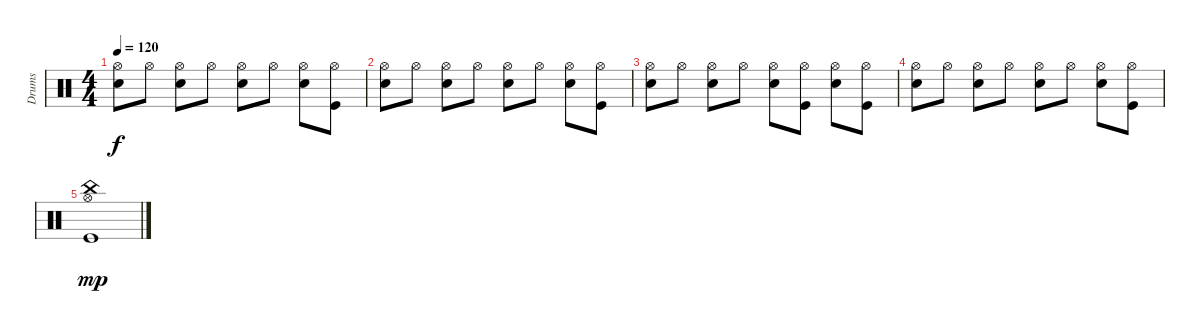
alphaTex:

\track ("Drums" "Drums") {instrument percussion}
\staff {score}
\articulation defaults
\ts (4 4)
\tempo 120
\clef neutral
\ks c
("Snare (hit) 2" "Hi-Hat (open)").8{dy f} "Hi-Hat (open)".8 ("Snare (hit) 2" "Hi-Hat (open)").8 "Hi-Hat (open)".8 ("Snare (hit) 2" "Hi-Hat (open)").8 "Hi-Hat (open)".8 ("Snare (hit) 2" "Hi-Hat (open)").8 ("Kick (hit)" "Hi-Hat (open)").8 |
("Snare (hit) 2" "Hi-Hat (open)").8 "Hi-Hat (open)".8 ("Snare (hit) 2" "Hi-Hat (open)").8 "Hi-Hat (open)".8 ("Snare (hit) 2" "Hi-Hat (open)").8 "Hi-Hat (open)".8 ("Snare (hit) 2" "Hi-Hat (open)").8 ("Kick (hit)" "Hi-Hat (open)").8 |
("Snare (hit) 2" "Hi-Hat (open)").8 "Hi-Hat (open)".8 ("Snare (hit) 2" "Hi-Hat (open)").8 "Hi-Hat (open)".8 ("Snare (hit) 2" "Hi-Hat (open)").8 ("Kick (hit)" "Hi-Hat (open)").8 ("Snare (hit) 2" "Hi-Hat (open)").8 ("Kick (hit)" "Hi-Hat (open)").8 |
("Snare (hit) 2" "Hi-Hat (open)").8 "Hi-Hat (open)".8 ("Snare (hit) 2" "Hi-Hat (open)").8 "Hi-Hat (open)".8 ("Snare (hit) 2" "Hi-Hat (open)").8 "Hi-Hat (open)".8 ("Snare (hit) 2" "Hi-Hat (open)").8 ("Kick (hit)" "Hi-Hat (open)").8 |
("Kick (hit)" "Hi-Hat (open)" "China (hit)").1{dy mp}
